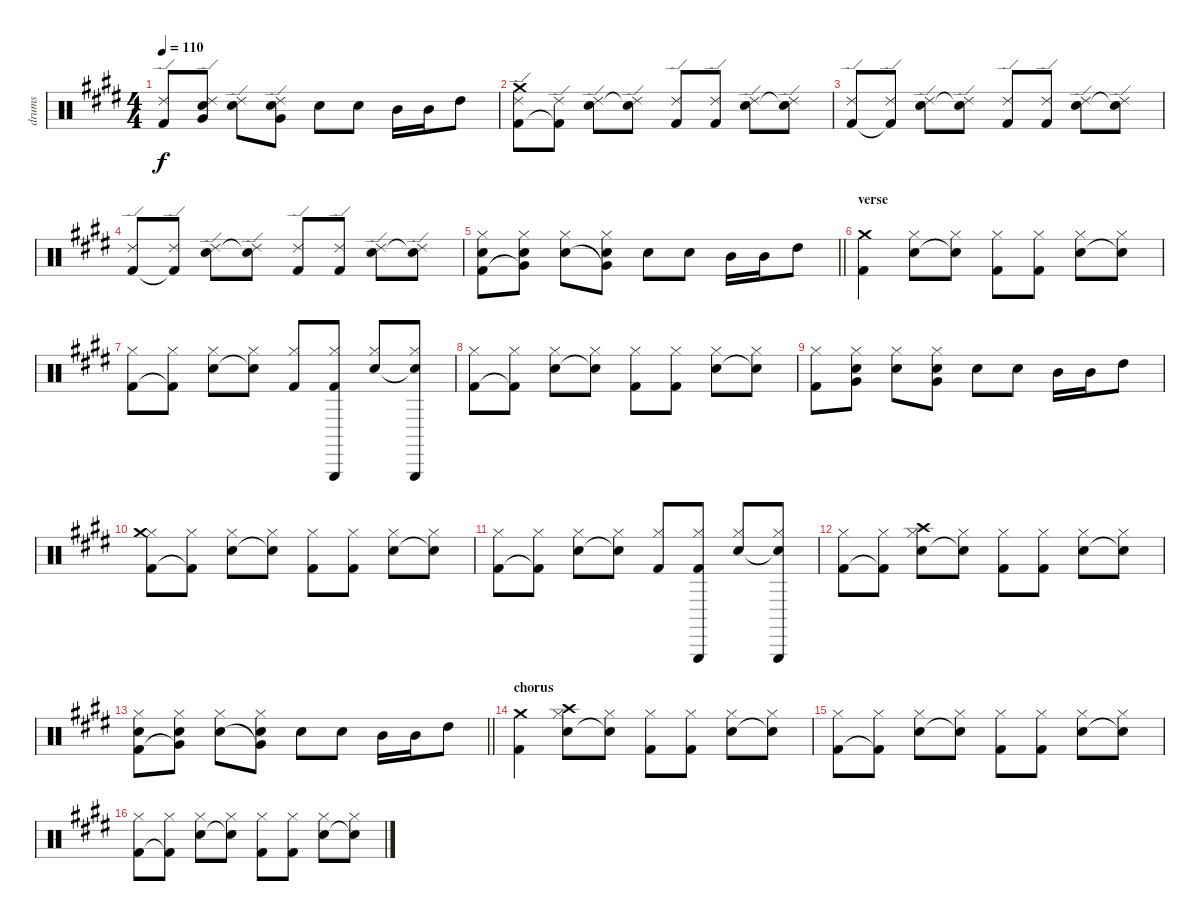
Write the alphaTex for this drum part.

\track ("drums" "drums") {instrument percussion}
\staff {score}
\articulation defaults
\ts (4 4)
\tempo 110
\clef neutral
\ks e
("Kick (hit) 2" "Ride (edge) 2").8{dy f} ("Very Low Tom (hit)" "Ride (edge) 2" "Electric Snare (hit)").8 ("Electric Snare (hit)" "Ride (edge) 2").8 ("Very Low Tom (hit)" "Ride (edge) 2" "Electric Snare (hit)").8 "Electric Snare (hit)".8 "Electric Snare (hit)".8 "Mid Tom (hit)".16 "Mid Tom (hit)".16 "High Tom (hit)".8 |
("Kick (hit) 2" "Ride (edge) 2" "Crash medium (hit)").8 ("Kick (hit) 2"{t} "Ride (edge) 2").8 ("Electric Snare (hit)" "Ride (edge) 2").8 ("Snare (hit)"{t} "Ride (edge) 2").8 ("Kick (hit) 2" "Ride (edge) 2").8 ("Kick (hit) 2" "Ride (edge) 2").8 ("Electric Snare (hit)" "Ride (edge) 2").8 ("Snare (hit)"{t} "Ride (edge) 2").8 |
("Kick (hit) 2" "Ride (edge) 2").8 ("Kick (hit) 2"{t} "Ride (edge) 2").8 ("Electric Snare (hit)" "Ride (edge) 2").8 ("Snare (hit)"{t} "Ride (edge) 2").8 ("Kick (hit) 2" "Ride (edge) 2").8 ("Kick (hit) 2" "Ride (edge) 2").8 ("Electric Snare (hit)" "Ride (edge) 2").8 ("Snare (hit)"{t} "Ride (edge) 2").8 |
("Kick (hit) 2" "Ride (edge) 2").8 ("Kick (hit) 2"{t} "Ride (edge) 2").8 ("Electric Snare (hit)" "Ride (edge) 2").8 ("Snare (hit)"{t} "Ride (edge) 2").8 ("Kick (hit) 2" "Ride (edge) 2").8 ("Kick (hit) 2" "Ride (edge) 2").8 ("Electric Snare (hit)" "Ride (edge) 2").8 ("Snare (hit)"{t} "Ride (edge) 2").8 |
\barLineRight lightlight
("Kick (hit) 2" "Hi-Hat (closed)" "Electric Snare (hit)").8 ("Very Low Tom (hit)"{t} "Hi-Hat (closed)" "Electric Snare (hit)").8 ("Electric Snare (hit)" "Hi-Hat (closed)").8 ("Very Low Tom (hit)"{t} "Hi-Hat (closed)" "Electric Snare (hit)").8 "Electric Snare (hit)".8 "Electric Snare (hit)".8 "Mid Tom (hit)".16 "Mid Tom (hit)".16 "High Tom (hit)".8 |
\section ("" "verse")
("Kick (hit) 2" "Crash medium (hit)").4 ("Electric Snare (hit)" "Hi-Hat (closed)").8 ("Snare (hit)"{t} "Hi-Hat (closed)").8 ("Kick (hit) 2" "Hi-Hat (closed)").8 ("Kick (hit) 2" "Hi-Hat (closed)").8 ("Electric Snare (hit)" "Hi-Hat (closed)").8 ("Snare (hit)"{t} "Hi-Hat (closed)").8 |
("Kick (hit) 2" "Hi-Hat (closed)").8 ("Kick (hit) 2"{t} "Hi-Hat (closed)").8 ("Electric Snare (hit)" "Hi-Hat (closed)").8 ("Snare (hit)"{t} "Hi-Hat (closed)").8 ("Kick (hit) 2" "Hi-Hat (closed)").8 ("Kick (hit) 2" "Hi-Hat (closed)" "Triangle (hit)").8 ("Electric Snare (hit)" "Hi-Hat (closed)").8 ("Snare (hit)"{t} "Hi-Hat (closed)" "Triangle (hit)").8 |
("Kick (hit) 2" "Hi-Hat (closed)").8 ("Kick (hit) 2"{t} "Hi-Hat (closed)").8 ("Electric Snare (hit)" "Hi-Hat (closed)").8 ("Snare (hit)"{t} "Hi-Hat (closed)").8 ("Kick (hit) 2" "Hi-Hat (closed)").8 ("Kick (hit) 2" "Hi-Hat (closed)").8 ("Electric Snare (hit)" "Hi-Hat (closed)").8 ("Snare (hit)"{t} "Hi-Hat (closed)").8 |
("Kick (hit) 2" "Hi-Hat (closed)").8 ("Very Low Tom (hit)" "Hi-Hat (closed)" "Electric Snare (hit)").8 ("Electric Snare (hit)" "Hi-Hat (closed)").8 ("Very Low Tom (hit)" "Hi-Hat (closed)" "Electric Snare (hit)").8 "Electric Snare (hit)".8 "Electric Snare (hit)".8 "Mid Tom (hit)".16 "Mid Tom (hit)".16 "High Tom (hit)".8 |
("Kick (hit) 2" "Hi-Hat (closed)" "Crash medium (hit)").8 ("Kick (hit) 2"{t} "Hi-Hat (closed)").8 ("Electric Snare (hit)" "Hi-Hat (closed)").8 ("Snare (hit)"{t} "Hi-Hat (closed)").8 ("Kick (hit) 2" "Hi-Hat (closed)").8 ("Kick (hit) 2" "Hi-Hat (closed)").8 ("Electric Snare (hit)" "Hi-Hat (closed)").8 ("Snare (hit)"{t} "Hi-Hat (closed)").8 |
("Kick (hit) 2" "Hi-Hat (closed)").8 ("Kick (hit) 2"{t} "Hi-Hat (closed)").8 ("Electric Snare (hit)" "Hi-Hat (closed)").8 ("Snare (hit)"{t} "Hi-Hat (closed)").8 ("Kick (hit) 2" "Hi-Hat (closed)").8 ("Kick (hit) 2" "Hi-Hat (closed)" "Triangle (hit)").8 ("Electric Snare (hit)" "Hi-Hat (closed)").8 ("Snare (hit)"{t} "Hi-Hat (closed)" "Triangle (hit)").8 |
("Kick (hit) 2" "Hi-Hat (closed)").8 ("Kick (hit) 2"{t} "Hi-Hat (closed)").8 ("Electric Snare (hit)" "Hi-Hat (closed)" "Crash high (hit)").8 ("Snare (hit)"{t} "Hi-Hat (closed)").8 ("Kick (hit) 2" "Hi-Hat (closed)").8 ("Kick (hit) 2" "Hi-Hat (closed)").8 ("Electric Snare (hit)" "Hi-Hat (closed)").8 ("Snare (hit)"{t} "Hi-Hat (closed)").8 |
\barLineRight lightlight
("Kick (hit) 2" "Hi-Hat (closed)" "Electric Snare (hit)").8 ("Very Low Tom (hit)"{t} "Hi-Hat (closed)" "Electric Snare (hit)").8 ("Electric Snare (hit)" "Hi-Hat (closed)").8 ("Very Low Tom (hit)"{t} "Hi-Hat (closed)" "Electric Snare (hit)").8 "Electric Snare (hit)".8 "Electric Snare (hit)".8 "Mid Tom (hit)".16 "Mid Tom (hit)".16 "High Tom (hit)".8 |
\section ("" "chorus")
("Kick (hit) 2" "Crash medium (hit)").4 ("Electric Snare (hit)" "Hi-Hat (closed)" "Crash high (hit)").8 ("Snare (hit)"{t} "Hi-Hat (closed)").8 ("Kick (hit) 2" "Hi-Hat (closed)").8 ("Kick (hit) 2" "Hi-Hat (closed)").8 ("Electric Snare (hit)" "Hi-Hat (closed)").8 ("Snare (hit)"{t} "Hi-Hat (closed)").8 |
("Kick (hit) 2" "Hi-Hat (closed)").8 ("Kick (hit) 2"{t} "Hi-Hat (closed)").8 ("Electric Snare (hit)" "Hi-Hat (closed)").8 ("Snare (hit)"{t} "Hi-Hat (closed)").8 ("Kick (hit) 2" "Hi-Hat (closed)").8 ("Kick (hit) 2" "Hi-Hat (closed)").8 ("Electric Snare (hit)" "Hi-Hat (closed)").8 ("Snare (hit)"{t} "Hi-Hat (closed)").8 |
("Kick (hit) 2" "Hi-Hat (closed)").8 ("Kick (hit) 2"{t} "Hi-Hat (closed)").8 ("Electric Snare (hit)" "Hi-Hat (closed)").8 ("Snare (hit)"{t} "Hi-Hat (closed)").8 ("Kick (hit) 2" "Hi-Hat (closed)").8 ("Kick (hit) 2" "Hi-Hat (closed)").8 ("Electric Snare (hit)" "Hi-Hat (closed)").8 ("Snare (hit)"{t} "Hi-Hat (closed)").8
